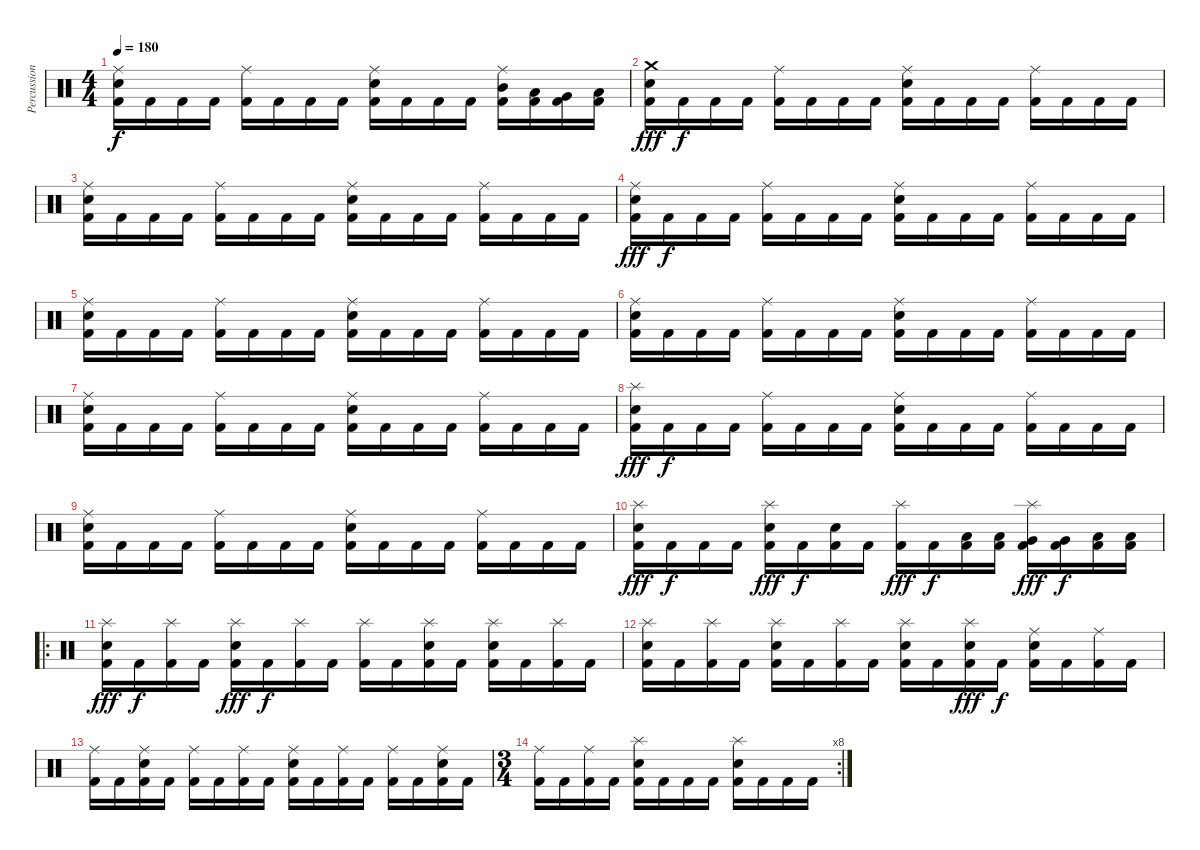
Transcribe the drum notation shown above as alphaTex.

\track ("Percussion" "Percussion") {instrument percussion}
\staff {score}
\articulation defaults
\ts (4 4)
\tempo 180
\clef neutral
\ks c
("Ride (middle)" "Electric Snare (hit)" "Kick (hit) 2").16{dy f} "Kick (hit) 2".16 "Kick (hit) 2".16 "Kick (hit) 2".16 ("Ride (middle)" "Kick (hit) 2").16 "Kick (hit) 2".16 "Kick (hit) 2".16 "Kick (hit) 2".16 ("Ride (middle)" "Electric Snare (hit)" "Kick (hit) 2").16 "Kick (hit) 2".16 "Kick (hit) 2".16 "Kick (hit) 2".16 ("Ride (middle)" "Mid Tom (hit)" "Kick (hit) 2").16 ("Low Tom (hit)" "Kick (hit) 2").16 ("Very Low Tom (hit)" "Kick (hit) 2").16 ("Low Floor Tom (hit)" "Kick (hit) 2").16 |
("Crash medium (hit)" "Electric Snare (hit)" "Kick (hit) 2").16{dy fff} "Kick (hit) 2".16{dy f} "Kick (hit) 2".16 "Kick (hit) 2".16 ("Ride (middle)" "Kick (hit) 2").16 "Kick (hit) 2".16 "Kick (hit) 2".16 "Kick (hit) 2".16 ("Ride (middle)" "Electric Snare (hit)" "Kick (hit) 2").16 "Kick (hit) 2".16 "Kick (hit) 2".16 "Kick (hit) 2".16 ("Ride (middle)" "Kick (hit) 2").16 "Kick (hit) 2".16 "Kick (hit) 2".16 "Kick (hit) 2".16 |
("Ride (middle)" "Electric Snare (hit)" "Kick (hit) 2").16 "Kick (hit) 2".16 "Kick (hit) 2".16 "Kick (hit) 2".16 ("Ride (middle)" "Kick (hit) 2").16 "Kick (hit) 2".16 "Kick (hit) 2".16 "Kick (hit) 2".16 ("Ride (middle)" "Electric Snare (hit)" "Kick (hit) 2").16 "Kick (hit) 2".16 "Kick (hit) 2".16 "Kick (hit) 2".16 ("Ride (middle)" "Kick (hit) 2").16 "Kick (hit) 2".16 "Kick (hit) 2".16 "Kick (hit) 2".16 |
("Ride (middle)" "Electric Snare (hit)" "Kick (hit) 2").16{dy fff} "Kick (hit) 2".16{dy f} "Kick (hit) 2".16 "Kick (hit) 2".16 ("Ride (middle)" "Kick (hit) 2").16 "Kick (hit) 2".16 "Kick (hit) 2".16 "Kick (hit) 2".16 ("Ride (middle)" "Electric Snare (hit)" "Kick (hit) 2").16 "Kick (hit) 2".16 "Kick (hit) 2".16 "Kick (hit) 2".16 ("Ride (middle)" "Kick (hit) 2").16 "Kick (hit) 2".16 "Kick (hit) 2".16 "Kick (hit) 2".16 |
("Ride (middle)" "Electric Snare (hit)" "Kick (hit) 2").16 "Kick (hit) 2".16 "Kick (hit) 2".16 "Kick (hit) 2".16 ("Ride (middle)" "Kick (hit) 2").16 "Kick (hit) 2".16 "Kick (hit) 2".16 "Kick (hit) 2".16 ("Ride (middle)" "Electric Snare (hit)" "Kick (hit) 2").16 "Kick (hit) 2".16 "Kick (hit) 2".16 "Kick (hit) 2".16 ("Ride (middle)" "Kick (hit) 2").16 "Kick (hit) 2".16 "Kick (hit) 2".16 "Kick (hit) 2".16 |
("Ride (middle)" "Electric Snare (hit)" "Kick (hit) 2").16 "Kick (hit) 2".16 "Kick (hit) 2".16 "Kick (hit) 2".16 ("Ride (middle)" "Kick (hit) 2").16 "Kick (hit) 2".16 "Kick (hit) 2".16 "Kick (hit) 2".16 ("Ride (middle)" "Electric Snare (hit)" "Kick (hit) 2").16 "Kick (hit) 2".16 "Kick (hit) 2".16 "Kick (hit) 2".16 ("Ride (middle)" "Kick (hit) 2").16 "Kick (hit) 2".16 "Kick (hit) 2".16 "Kick (hit) 2".16 |
("Ride (middle)" "Electric Snare (hit)" "Kick (hit) 2").16 "Kick (hit) 2".16 "Kick (hit) 2".16 "Kick (hit) 2".16 ("Ride (middle)" "Kick (hit) 2").16 "Kick (hit) 2".16 "Kick (hit) 2".16 "Kick (hit) 2".16 ("Ride (middle)" "Electric Snare (hit)" "Kick (hit) 2").16 "Kick (hit) 2".16 "Kick (hit) 2".16 "Kick (hit) 2".16 ("Ride (middle)" "Kick (hit) 2").16 "Kick (hit) 2".16 "Kick (hit) 2".16 "Kick (hit) 2".16 |
("Splash (hit)" "Electric Snare (hit)" "Kick (hit) 2").16{dy fff} "Kick (hit) 2".16{dy f} "Kick (hit) 2".16 "Kick (hit) 2".16 ("Ride (middle)" "Kick (hit) 2").16 "Kick (hit) 2".16 "Kick (hit) 2".16 "Kick (hit) 2".16 ("Ride (middle)" "Electric Snare (hit)" "Kick (hit) 2").16 "Kick (hit) 2".16 "Kick (hit) 2".16 "Kick (hit) 2".16 ("Ride (middle)" "Kick (hit) 2").16 "Kick (hit) 2".16 "Kick (hit) 2".16 "Kick (hit) 2".16 |
("Ride (middle)" "Electric Snare (hit)" "Kick (hit) 2").16 "Kick (hit) 2".16 "Kick (hit) 2".16 "Kick (hit) 2".16 ("Ride (middle)" "Kick (hit) 2").16 "Kick (hit) 2".16 "Kick (hit) 2".16 "Kick (hit) 2".16 ("Ride (middle)" "Electric Snare (hit)" "Kick (hit) 2").16 "Kick (hit) 2".16 "Kick (hit) 2".16 "Kick (hit) 2".16 ("Ride (middle)" "Kick (hit) 2").16 "Kick (hit) 2".16 "Kick (hit) 2".16 "Kick (hit) 2".16 |
("Splash (hit)" "Electric Snare (hit)" "Kick (hit) 2").16{dy fff} "Kick (hit) 2".16{dy f} "Kick (hit) 2".16 "Kick (hit) 2".16 ("Splash (hit)" "Electric Snare (hit)" "Kick (hit) 2").16{dy fff} "Kick (hit) 2".16{dy f} ("Electric Snare (hit)" "Kick (hit) 2").16 "Kick (hit) 2".16 ("Splash (hit)" "Kick (hit) 2").16{dy fff} "Kick (hit) 2".16{dy f} ("Low Tom (hit)" "Kick (hit) 2").16 ("Low Tom (hit)" "Kick (hit) 2").16 ("Splash (hit)" "Very Low Tom (hit)" "Kick (hit) 2").16{dy fff} ("Very Low Tom (hit)" "Kick (hit) 2").16{dy f} ("Low Floor Tom (hit)" "Kick (hit) 2").16 ("Low Floor Tom (hit)" "Kick (hit) 2").16 |
\ro
("Splash (hit)" "Electric Snare (hit)" "Kick (hit) 2").16{dy fff} "Kick (hit) 2".16{dy f} ("Splash (hit)" "Kick (hit) 2").16 "Kick (hit) 2".16 ("Splash (hit)" "Electric Snare (hit)" "Kick (hit) 2").16{dy fff} "Kick (hit) 2".16{dy f} ("Splash (hit)" "Kick (hit) 2").16 "Kick (hit) 2".16 ("Splash (hit)" "Kick (hit) 2").16 "Kick (hit) 2".16 ("Splash (hit)" "Electric Snare (hit)" "Kick (hit) 2").16 "Kick (hit) 2".16 ("Splash (hit)" "Electric Snare (hit)" "Kick (hit) 2").16 "Kick (hit) 2".16 ("Splash (hit)" "Kick (hit) 2").16 "Kick (hit) 2".16 |
("Splash (hit)" "Electric Snare (hit)" "Kick (hit) 2").16 "Kick (hit) 2".16 ("Splash (hit)" "Kick (hit) 2").16 "Kick (hit) 2".16 ("Splash (hit)" "Electric Snare (hit)" "Kick (hit) 2").16 "Kick (hit) 2".16 ("Splash (hit)" "Kick (hit) 2").16 "Kick (hit) 2".16 ("Splash (hit)" "Electric Snare (hit)" "Kick (hit) 2").16 "Kick (hit) 2".16 ("Splash (hit)" "Electric Snare (hit)" "Kick (hit) 2").16{dy fff} "Kick (hit) 2".16{dy f} ("Ride (middle)" "Electric Snare (hit)" "Kick (hit) 2").16 "Kick (hit) 2".16 ("Ride (middle)" "Kick (hit) 2").16 "Kick (hit) 2".16 |
("Ride (middle)" "Kick (hit) 2").16 "Kick (hit) 2".16 ("Ride (middle)" "Electric Snare (hit)" "Kick (hit) 2").16 "Kick (hit) 2".16 ("Ride (middle)" "Kick (hit) 2").16 "Kick (hit) 2".16 ("Ride (middle)" "Kick (hit) 2").16 "Kick (hit) 2".16 ("Ride (middle)" "Electric Snare (hit)" "Kick (hit) 2").16 "Kick (hit) 2".16 ("Ride (middle)" "Kick (hit) 2").16 "Kick (hit) 2".16 ("Ride (middle)" "Kick (hit) 2").16 "Kick (hit) 2".16 ("Ride (middle)" "Electric Snare (hit)" "Kick (hit) 2").16 "Kick (hit) 2".16 |
\rc 8
\ts (3 4)
("Ride (middle)" "Kick (hit) 2").16 "Kick (hit) 2".16 ("Ride (middle)" "Kick (hit) 2").16 "Kick (hit) 2".16 ("Splash (hit)" "Electric Snare (hit)" "Kick (hit) 2").16 "Kick (hit) 2".16 "Kick (hit) 2".16 "Kick (hit) 2".16 ("Splash (hit)" "Electric Snare (hit)" "Kick (hit) 2").16 "Kick (hit) 2".16 "Kick (hit) 2".16 "Kick (hit) 2".16
